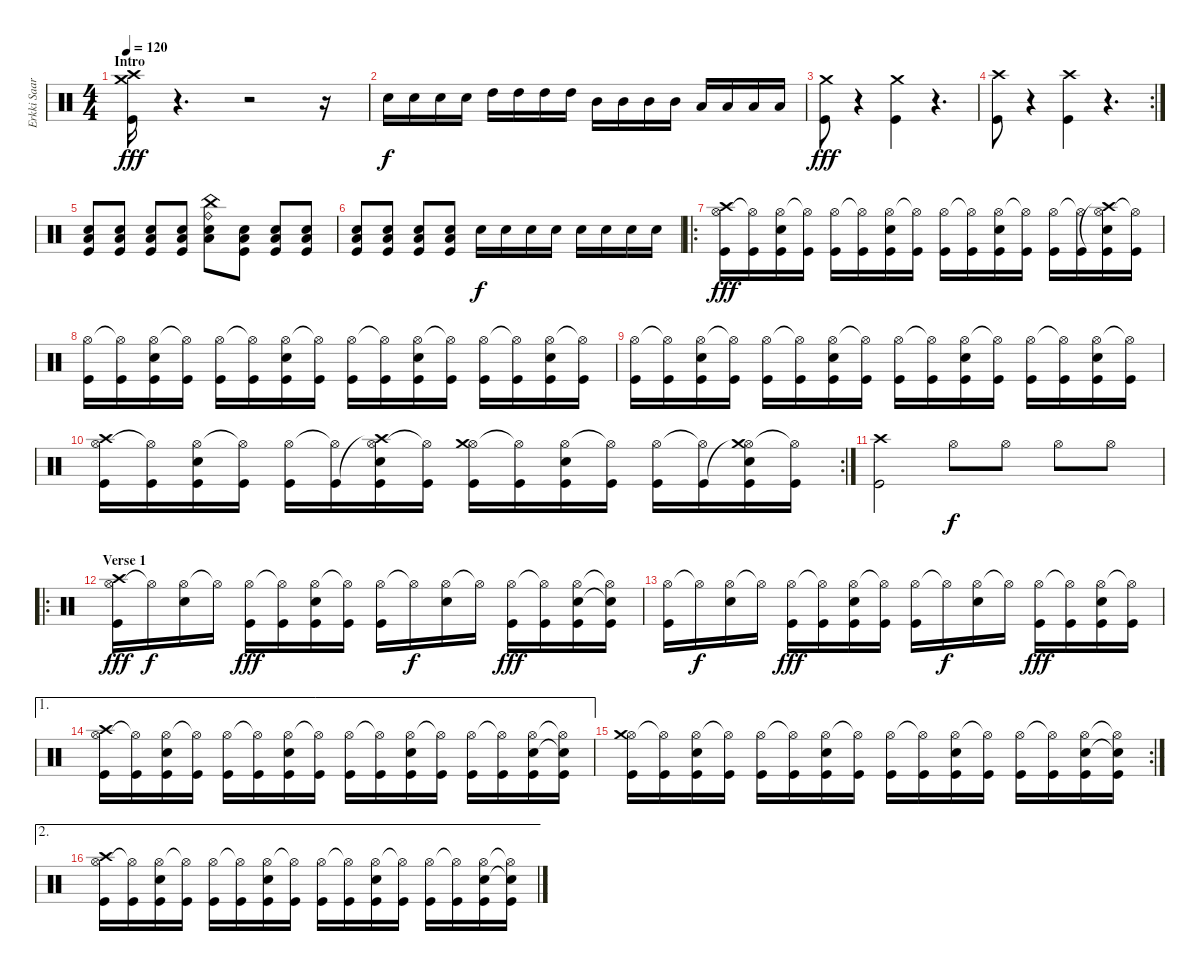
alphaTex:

\track ("Erkki Saarinen" "Erkki Saar") {instrument percussion}
\staff {score}
\articulation defaults
\ts (4 4)
\section ("" "Intro")
\tempo 120
\clef neutral
\ks c
("Crash high (hit)" "Crash medium (hit)" "Kick (hit)").16{dy fff} r.4{d} r.2 r.16 |
"Snare (hit) 2".16{dy f} "Snare (hit) 2".16 "Snare (hit) 2".16 "Snare (hit) 2".16 "High Tom (hit)".16 "High Tom (hit)".16 "High Tom (hit)".16 "High Tom (hit)".16 "Mid Tom (hit)".16 "Mid Tom (hit)".16 "Mid Tom (hit)".16 "Mid Tom (hit)".16 "Low Tom (hit)".16 "Low Tom (hit)".16 "Low Tom (hit)".16 "Low Tom (hit)".16 |
("Crash medium (hit)" "Kick (hit)").8{dy fff} r.4 ("Crash medium (hit)" "Kick (hit)").4 r.4{d} |
\rc 2
("Crash high (hit)" "Kick (hit)").8 r.4 ("Crash high (hit)" "Kick (hit)").4 r.4{d} |
("Snare (hit) 2" "Kick (hit)" "Low Tom (hit)").8 ("Snare (hit) 2" "Kick (hit)" "Low Tom (hit)").8 ("Snare (hit) 2" "Kick (hit)" "Low Tom (hit)").8 ("Snare (hit) 2" "Kick (hit)" "Low Tom (hit)").8 ("China (hit)" "Snare (hit) 2" "Ride (bell)" "Low Tom (hit)").8 ("Snare (hit) 2" "Kick (hit)" "Low Tom (hit)").8 ("Snare (hit) 2" "Kick (hit)" "Low Tom (hit)").8 ("Snare (hit) 2" "Kick (hit)" "Low Tom (hit)").8 |
("Snare (hit) 2" "Kick (hit)" "Low Tom (hit)").8 ("Snare (hit) 2" "Kick (hit)" "Low Tom (hit)").8 ("Snare (hit) 2" "Kick (hit)" "Low Tom (hit)").8 ("Snare (hit) 2" "Kick (hit)" "Low Tom (hit)").8 "Snare (hit) 2".16{dy f} "Snare (hit) 2".16 "Snare (hit) 2".16 "Snare (hit) 2".16 "Snare (hit) 2".16 "Snare (hit) 2".16 "Snare (hit) 2".16 "Snare (hit) 2".16 |
\ro
("Hi-Hat (open)" "Crash high (hit)" "Kick (hit)").16{dy fff} ("Hi-Hat (open)"{t} "Kick (hit)").16 ("Hi-Hat (open)" "Snare (hit) 2" "Kick (hit)").16 ("Hi-Hat (open)"{t} "Kick (hit)").16 ("Hi-Hat (open)" "Kick (hit)").16 ("Hi-Hat (open)"{t} "Kick (hit)").16 ("Hi-Hat (open)" "Snare (hit) 2" "Kick (hit)").16 ("Hi-Hat (open)"{t} "Kick (hit)").16 ("Hi-Hat (open)" "Kick (hit)").16 ("Hi-Hat (open)"{t} "Kick (hit)").16 ("Hi-Hat (open)" "Snare (hit) 2" "Kick (hit)").16 ("Hi-Hat (open)"{t} "Kick (hit)").16 ("Hi-Hat (open)" "Kick (hit)").16 ("Hi-Hat (open)"{t} "Kick (hit)").16 ("Hi-Hat (open)" "Crash high (hit)"{t} "Snare (hit) 2" "Kick (hit)").16 ("Hi-Hat (open)"{t} "Kick (hit)").16 |
("Hi-Hat (open)" "Kick (hit)").16 ("Hi-Hat (open)"{t} "Kick (hit)").16 ("Hi-Hat (open)" "Snare (hit) 2" "Kick (hit)").16 ("Hi-Hat (open)"{t} "Kick (hit)").16 ("Hi-Hat (open)" "Kick (hit)").16 ("Hi-Hat (open)"{t} "Kick (hit)").16 ("Hi-Hat (open)" "Snare (hit) 2" "Kick (hit)").16 ("Hi-Hat (open)"{t} "Kick (hit)").16 ("Hi-Hat (open)" "Kick (hit)").16 ("Hi-Hat (open)"{t} "Kick (hit)").16 ("Hi-Hat (open)" "Snare (hit) 2" "Kick (hit)").16 ("Hi-Hat (open)"{t} "Kick (hit)").16 ("Hi-Hat (open)" "Kick (hit)").16 ("Hi-Hat (open)"{t} "Kick (hit)").16 ("Hi-Hat (open)" "Snare (hit) 2" "Kick (hit)").16 ("Hi-Hat (open)"{t} "Kick (hit)").16 |
("Hi-Hat (open)" "Kick (hit)").16 ("Hi-Hat (open)"{t} "Kick (hit)").16 ("Hi-Hat (open)" "Snare (hit) 2" "Kick (hit)").16 ("Hi-Hat (open)"{t} "Kick (hit)").16 ("Hi-Hat (open)" "Kick (hit)").16 ("Hi-Hat (open)"{t} "Kick (hit)").16 ("Hi-Hat (open)" "Snare (hit) 2" "Kick (hit)").16 ("Hi-Hat (open)"{t} "Kick (hit)").16 ("Hi-Hat (open)" "Kick (hit)").16 ("Hi-Hat (open)"{t} "Kick (hit)").16 ("Hi-Hat (open)" "Snare (hit) 2" "Kick (hit)").16 ("Hi-Hat (open)"{t} "Kick (hit)").16 ("Hi-Hat (open)" "Kick (hit)").16 ("Hi-Hat (open)"{t} "Kick (hit)").16 ("Hi-Hat (open)" "Snare (hit) 2" "Kick (hit)").16 ("Hi-Hat (open)"{t} "Kick (hit)").16 |
\rc 2
("Hi-Hat (open)" "Crash high (hit)" "Kick (hit)").16 ("Hi-Hat (open)"{t} "Kick (hit)").16 ("Hi-Hat (open)" "Snare (hit) 2" "Kick (hit)").16 ("Hi-Hat (open)"{t} "Kick (hit)").16 ("Hi-Hat (open)" "Kick (hit)").16 ("Hi-Hat (open)"{t} "Kick (hit)").16 ("Hi-Hat (open)" "Crash high (hit)"{t} "Snare (hit) 2" "Kick (hit)").16 ("Hi-Hat (open)"{t} "Kick (hit)").16 ("Hi-Hat (open)" "Crash medium (hit)" "Kick (hit)").16 ("Hi-Hat (open)"{t} "Kick (hit)").16 ("Hi-Hat (open)" "Snare (hit) 2" "Kick (hit)").16 ("Hi-Hat (open)"{t} "Kick (hit)").16 ("Hi-Hat (open)" "Kick (hit)").16 ("Hi-Hat (open)"{t} "Kick (hit)").16 ("Hi-Hat (open)" "Crash medium (hit)"{t} "Snare (hit) 2" "Kick (hit)").16 ("Hi-Hat (open)"{t} "Kick (hit)").16 |
("Crash high (hit)" "Kick (hit)").2 "Hi-Hat (open)".8{dy f} "Hi-Hat (open)".8 "Hi-Hat (open)".8 "Hi-Hat (open)".8 |
\ro
\section ("" "Verse 1")
("Hi-Hat (open)" "Crash high (hit)" "Kick (hit)").16{dy fff} "Hi-Hat (open)"{t}.16{dy f} ("Hi-Hat (open)" "Snare (hit) 2").16 "Hi-Hat (open)"{t}.16 ("Hi-Hat (open)" "Kick (hit)").16{dy fff} ("Hi-Hat (open)"{t} "Kick (hit)").16 ("Hi-Hat (open)" "Snare (hit) 2" "Kick (hit)").16 ("Hi-Hat (open)"{t} "Kick (hit)").16 ("Hi-Hat (open)" "Kick (hit)").16 "Hi-Hat (open)"{t}.16{dy f} ("Hi-Hat (open)" "Snare (hit) 2").16 "Hi-Hat (open)"{t}.16 ("Hi-Hat (open)" "Kick (hit)").16{dy fff} ("Hi-Hat (open)"{t} "Kick (hit)").16 ("Hi-Hat (open)" "Snare (hit) 2" "Kick (hit)").16 ("Hi-Hat (open)"{t} "Snare (hit)"{t} "Kick (hit)").16 |
("Hi-Hat (open)" "Kick (hit)").16 "Hi-Hat (open)"{t}.16{dy f} ("Hi-Hat (open)" "Snare (hit) 2").16 "Hi-Hat (open)"{t}.16 ("Hi-Hat (open)" "Kick (hit)").16{dy fff} ("Hi-Hat (open)"{t} "Kick (hit)").16 ("Hi-Hat (open)" "Snare (hit) 2" "Kick (hit)").16 ("Hi-Hat (open)"{t} "Kick (hit)").16 ("Hi-Hat (open)" "Kick (hit)").16 "Hi-Hat (open)"{t}.16{dy f} ("Hi-Hat (open)" "Snare (hit) 2").16 "Hi-Hat (open)"{t}.16 ("Hi-Hat (open)" "Kick (hit)").16{dy fff} ("Hi-Hat (open)"{t} "Kick (hit)").16 ("Hi-Hat (open)" "Snare (hit) 2" "Kick (hit)").16 ("Hi-Hat (open)"{t} "Kick (hit)").16 |
\ae 1
("Hi-Hat (open)" "Crash high (hit)" "Kick (hit)").16 ("Hi-Hat (open)"{t} "Kick (hit)").16 ("Hi-Hat (open)" "Snare (hit) 2" "Kick (hit)").16 ("Hi-Hat (open)"{t} "Kick (hit)").16 ("Hi-Hat (open)" "Kick (hit)").16 ("Hi-Hat (open)"{t} "Kick (hit)").16 ("Hi-Hat (open)" "Snare (hit) 2" "Kick (hit)").16 ("Hi-Hat (open)"{t} "Kick (hit)").16 ("Hi-Hat (open)" "Kick (hit)").16 ("Hi-Hat (open)"{t} "Kick (hit)").16 ("Hi-Hat (open)" "Snare (hit) 2" "Kick (hit)").16 ("Hi-Hat (open)"{t} "Kick (hit)").16 ("Hi-Hat (open)" "Kick (hit)").16 ("Hi-Hat (open)"{t} "Kick (hit)").16 ("Hi-Hat (open)" "Snare (hit) 2" "Kick (hit)").16 ("Hi-Hat (open)"{t} "Snare (hit)"{t} "Kick (hit)").16 |
\rc 2
("Hi-Hat (open)" "Crash medium (hit)" "Kick (hit)").16 ("Hi-Hat (open)"{t} "Kick (hit)").16 ("Hi-Hat (open)" "Snare (hit) 2" "Kick (hit)").16 ("Hi-Hat (open)"{t} "Kick (hit)").16 ("Hi-Hat (open)" "Kick (hit)").16 ("Hi-Hat (open)"{t} "Kick (hit)").16 ("Hi-Hat (open)" "Snare (hit) 2" "Kick (hit)").16 ("Hi-Hat (open)"{t} "Kick (hit)").16 ("Hi-Hat (open)" "Kick (hit)").16 ("Hi-Hat (open)"{t} "Kick (hit)").16 ("Hi-Hat (open)" "Snare (hit) 2" "Kick (hit)").16 ("Hi-Hat (open)"{t} "Kick (hit)").16 ("Hi-Hat (open)" "Kick (hit)").16 ("Hi-Hat (open)"{t} "Kick (hit)").16 ("Hi-Hat (open)" "Snare (hit) 2" "Kick (hit)").16 ("Hi-Hat (open)"{t} "Snare (hit)"{t} "Kick (hit)").16 |
\ae 2
("Hi-Hat (open)" "Crash high (hit)" "Kick (hit)").16 ("Hi-Hat (open)"{t} "Kick (hit)").16 ("Hi-Hat (open)" "Snare (hit) 2" "Kick (hit)").16 ("Hi-Hat (open)"{t} "Kick (hit)").16 ("Hi-Hat (open)" "Kick (hit)").16 ("Hi-Hat (open)"{t} "Kick (hit)").16 ("Hi-Hat (open)" "Snare (hit) 2" "Kick (hit)").16 ("Hi-Hat (open)"{t} "Kick (hit)").16 ("Hi-Hat (open)" "Kick (hit)").16 ("Hi-Hat (open)"{t} "Kick (hit)").16 ("Hi-Hat (open)" "Snare (hit) 2" "Kick (hit)").16 ("Hi-Hat (open)"{t} "Kick (hit)").16 ("Hi-Hat (open)" "Kick (hit)").16 ("Hi-Hat (open)"{t} "Kick (hit)").16 ("Hi-Hat (open)" "Snare (hit) 2" "Kick (hit)").16 ("Hi-Hat (open)"{t} "Snare (hit)"{t} "Kick (hit)").16
